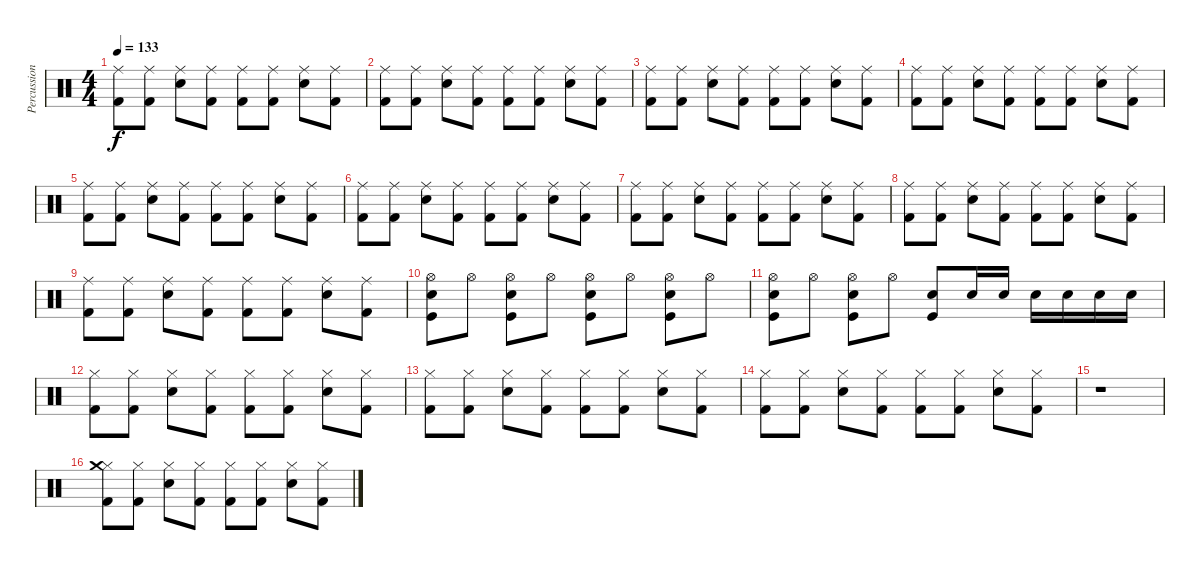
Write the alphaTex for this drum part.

\track ("Percussion" "Percussion") {instrument percussion}
\staff {score}
\articulation defaults
\ts (4 4)
\tempo 133
\clef neutral
\ks c
("Ride (middle)" "Kick (hit) 2").8{dy f} ("Ride (middle)" "Kick (hit) 2").8 ("Electric Snare (hit)" "Ride (middle)").8 ("Ride (middle)" "Kick (hit) 2").8 ("Ride (middle)" "Kick (hit) 2").8 ("Ride (middle)" "Kick (hit) 2").8 ("Electric Snare (hit)" "Ride (middle)").8 ("Ride (middle)" "Kick (hit) 2").8 |
("Ride (middle)" "Kick (hit) 2").8 ("Ride (middle)" "Kick (hit) 2").8 ("Electric Snare (hit)" "Ride (middle)").8 ("Ride (middle)" "Kick (hit) 2").8 ("Ride (middle)" "Kick (hit) 2").8 ("Ride (middle)" "Kick (hit) 2").8 ("Electric Snare (hit)" "Ride (middle)").8 ("Ride (middle)" "Kick (hit) 2").8 |
("Ride (middle)" "Kick (hit) 2").8 ("Ride (middle)" "Kick (hit) 2").8 ("Electric Snare (hit)" "Ride (middle)").8 ("Ride (middle)" "Kick (hit) 2").8 ("Ride (middle)" "Kick (hit) 2").8 ("Ride (middle)" "Kick (hit) 2").8 ("Electric Snare (hit)" "Ride (middle)").8 ("Ride (middle)" "Kick (hit) 2").8 |
("Ride (middle)" "Kick (hit) 2").8 ("Ride (middle)" "Kick (hit) 2").8 ("Electric Snare (hit)" "Ride (middle)").8 ("Ride (middle)" "Kick (hit) 2").8 ("Ride (middle)" "Kick (hit) 2").8 ("Ride (middle)" "Kick (hit) 2").8 ("Electric Snare (hit)" "Ride (middle)").8 ("Ride (middle)" "Kick (hit) 2").8 |
("Ride (middle)" "Kick (hit) 2").8 ("Ride (middle)" "Kick (hit) 2").8 ("Electric Snare (hit)" "Ride (middle)").8 ("Ride (middle)" "Kick (hit) 2").8 ("Ride (middle)" "Kick (hit) 2").8 ("Ride (middle)" "Kick (hit) 2").8 ("Electric Snare (hit)" "Ride (middle)").8 ("Ride (middle)" "Kick (hit) 2").8 |
("Ride (middle)" "Kick (hit) 2").8 ("Ride (middle)" "Kick (hit) 2").8 ("Electric Snare (hit)" "Ride (middle)").8 ("Ride (middle)" "Kick (hit) 2").8 ("Ride (middle)" "Kick (hit) 2").8 ("Ride (middle)" "Kick (hit) 2").8 ("Electric Snare (hit)" "Ride (middle)").8 ("Ride (middle)" "Kick (hit) 2").8 |
("Ride (middle)" "Kick (hit) 2").8 ("Ride (middle)" "Kick (hit) 2").8 ("Electric Snare (hit)" "Ride (middle)").8 ("Ride (middle)" "Kick (hit) 2").8 ("Ride (middle)" "Kick (hit) 2").8 ("Ride (middle)" "Kick (hit) 2").8 ("Electric Snare (hit)" "Ride (middle)").8 ("Ride (middle)" "Kick (hit) 2").8 |
("Ride (middle)" "Kick (hit) 2").8 ("Ride (middle)" "Kick (hit) 2").8 ("Electric Snare (hit)" "Ride (middle)").8 ("Ride (middle)" "Kick (hit) 2").8 ("Ride (middle)" "Kick (hit) 2").8 ("Ride (middle)" "Kick (hit) 2").8 ("Electric Snare (hit)" "Ride (middle)").8 ("Ride (middle)" "Kick (hit) 2").8 |
("Ride (middle)" "Kick (hit) 2").8 ("Ride (middle)" "Kick (hit) 2").8 ("Electric Snare (hit)" "Ride (middle)").8 ("Ride (middle)" "Kick (hit) 2").8 ("Ride (middle)" "Kick (hit) 2").8 ("Ride (middle)" "Kick (hit) 2").8 ("Electric Snare (hit)" "Ride (middle)").8 ("Ride (middle)" "Kick (hit) 2").8 |
("Hi-Hat (open)" "Snare (hit) 2" "Kick (hit)").8 "Hi-Hat (open)".8 ("Hi-Hat (open)" "Snare (hit) 2" "Kick (hit)").8 "Hi-Hat (open)".8 ("Hi-Hat (open)" "Snare (hit) 2" "Kick (hit)").8 "Hi-Hat (open)".8 ("Hi-Hat (open)" "Snare (hit) 2" "Kick (hit)").8 "Hi-Hat (open)".8 |
("Hi-Hat (open)" "Snare (hit) 2" "Kick (hit)").8 "Hi-Hat (open)".8 ("Hi-Hat (open)" "Snare (hit) 2" "Kick (hit)").8 "Hi-Hat (open)".8 ("Snare (hit) 2" "Kick (hit)").8 "Snare (hit) 2".16 "Snare (hit) 2".16 "Snare (hit) 2".16 "Snare (hit) 2".16 "Snare (hit) 2".16 "Snare (hit) 2".16 |
("Hi-Hat (closed)" "Kick (hit) 2").8 ("Hi-Hat (closed)" "Kick (hit) 2").8 ("Electric Snare (hit)" "Hi-Hat (closed)").8 ("Hi-Hat (closed)" "Kick (hit) 2").8 ("Hi-Hat (closed)" "Kick (hit) 2").8 ("Hi-Hat (closed)" "Kick (hit) 2").8 ("Electric Snare (hit)" "Hi-Hat (closed)").8 ("Hi-Hat (closed)" "Kick (hit) 2").8 |
("Hi-Hat (closed)" "Kick (hit) 2").8 ("Hi-Hat (closed)" "Kick (hit) 2").8 ("Electric Snare (hit)" "Hi-Hat (closed)").8 ("Hi-Hat (closed)" "Kick (hit) 2").8 ("Hi-Hat (closed)" "Kick (hit) 2").8 ("Hi-Hat (closed)" "Kick (hit) 2").8 ("Electric Snare (hit)" "Hi-Hat (closed)").8 ("Hi-Hat (closed)" "Kick (hit) 2").8 |
("Hi-Hat (closed)" "Kick (hit) 2").8 ("Hi-Hat (closed)" "Kick (hit) 2").8 ("Electric Snare (hit)" "Hi-Hat (closed)").8 ("Hi-Hat (closed)" "Kick (hit) 2").8 ("Hi-Hat (closed)" "Kick (hit) 2").8 ("Hi-Hat (closed)" "Kick (hit) 2").8 ("Electric Snare (hit)" "Hi-Hat (closed)").8 ("Hi-Hat (closed)" "Kick (hit) 2").8 |
r.1 |
("Hi-Hat (closed)" "Kick (hit) 2" "Crash medium (hit)").8 ("Hi-Hat (closed)" "Kick (hit) 2").8 ("Electric Snare (hit)" "Hi-Hat (closed)").8 ("Hi-Hat (closed)" "Kick (hit) 2").8 ("Hi-Hat (closed)" "Kick (hit) 2").8 ("Hi-Hat (closed)" "Kick (hit) 2").8 ("Electric Snare (hit)" "Hi-Hat (closed)").8 ("Hi-Hat (closed)" "Kick (hit) 2").8
